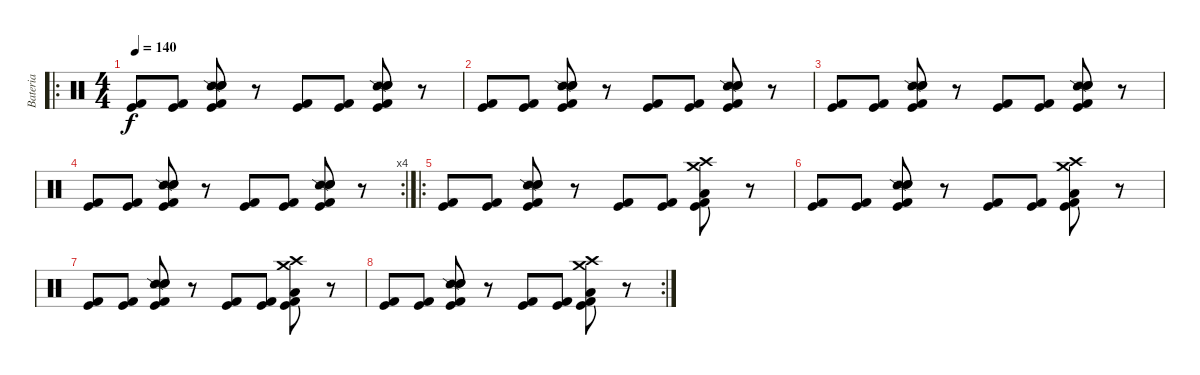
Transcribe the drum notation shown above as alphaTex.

\track ("Bateria" "Bateria") {instrument percussion}
\staff {score}
\articulation defaults
\ro
\ts (4 4)
\tempo 140
\clef neutral
\ks c
("Kick (hit) 2" "Kick (hit)").8{dy f} ("Kick (hit) 2" "Kick (hit)").8 ("Snare (side stick) 2" "Kick (hit) 2" "Snare (hit) 2" "Kick (hit)" "Electric Snare (hit)").8 r.8 ("Kick (hit) 2" "Kick (hit)").8 ("Kick (hit) 2" "Kick (hit)").8 ("Snare (side stick) 2" "Kick (hit) 2" "Snare (hit) 2" "Kick (hit)" "Electric Snare (hit)").8 r.8 |
("Kick (hit) 2" "Kick (hit)").8 ("Kick (hit) 2" "Kick (hit)").8 ("Snare (side stick) 2" "Kick (hit) 2" "Snare (hit) 2" "Kick (hit)" "Electric Snare (hit)").8 r.8 ("Kick (hit) 2" "Kick (hit)").8 ("Kick (hit) 2" "Kick (hit)").8 ("Snare (side stick) 2" "Kick (hit) 2" "Snare (hit) 2" "Kick (hit)" "Electric Snare (hit)").8 r.8 |
("Kick (hit) 2" "Kick (hit)").8 ("Kick (hit) 2" "Kick (hit)").8 ("Snare (side stick) 2" "Kick (hit) 2" "Snare (hit) 2" "Kick (hit)" "Electric Snare (hit)").8 r.8 ("Kick (hit) 2" "Kick (hit)").8 ("Kick (hit) 2" "Kick (hit)").8 ("Snare (side stick) 2" "Kick (hit) 2" "Snare (hit) 2" "Kick (hit)" "Electric Snare (hit)").8 r.8 |
\rc 4
("Kick (hit) 2" "Kick (hit)").8 ("Kick (hit) 2" "Kick (hit)").8 ("Snare (side stick) 2" "Kick (hit) 2" "Snare (hit) 2" "Kick (hit)" "Electric Snare (hit)").8 r.8 ("Kick (hit) 2" "Kick (hit)").8 ("Kick (hit) 2" "Kick (hit)").8 ("Snare (side stick) 2" "Kick (hit) 2" "Snare (hit) 2" "Kick (hit)" "Electric Snare (hit)").8 r.8 |
\ro
("Kick (hit) 2" "Kick (hit)").8 ("Kick (hit) 2" "Kick (hit)").8 ("Snare (side stick) 2" "Kick (hit) 2" "Snare (hit) 2" "Kick (hit)" "Electric Snare (hit)").8 r.8 ("Kick (hit) 2" "Kick (hit)").8 ("Kick (hit) 2" "Kick (hit)").8 ("Crash high (hit)" "Kick (hit) 2" "Low Tom (hit)" "Kick (hit)" "Crash medium (hit)").8 r.8 |
("Kick (hit) 2" "Kick (hit)").8 ("Kick (hit) 2" "Kick (hit)").8 ("Snare (side stick) 2" "Kick (hit) 2" "Snare (hit) 2" "Kick (hit)" "Electric Snare (hit)").8 r.8 ("Kick (hit) 2" "Kick (hit)").8 ("Kick (hit) 2" "Kick (hit)").8 ("Crash high (hit)" "Kick (hit) 2" "Low Tom (hit)" "Kick (hit)" "Crash medium (hit)").8 r.8 |
("Kick (hit) 2" "Kick (hit)").8 ("Kick (hit) 2" "Kick (hit)").8 ("Snare (side stick) 2" "Kick (hit) 2" "Snare (hit) 2" "Kick (hit)" "Electric Snare (hit)").8 r.8 ("Kick (hit) 2" "Kick (hit)").8 ("Kick (hit) 2" "Kick (hit)").8 ("Crash high (hit)" "Kick (hit) 2" "Low Tom (hit)" "Kick (hit)" "Crash medium (hit)").8 r.8 |
\rc 2
("Kick (hit) 2" "Kick (hit)").8 ("Kick (hit) 2" "Kick (hit)").8 ("Snare (side stick) 2" "Kick (hit) 2" "Snare (hit) 2" "Kick (hit)" "Electric Snare (hit)").8 r.8 ("Kick (hit) 2" "Kick (hit)").8 ("Kick (hit) 2" "Kick (hit)").8 ("Crash high (hit)" "Kick (hit) 2" "Low Tom (hit)" "Kick (hit)" "Crash medium (hit)").8 r.8
